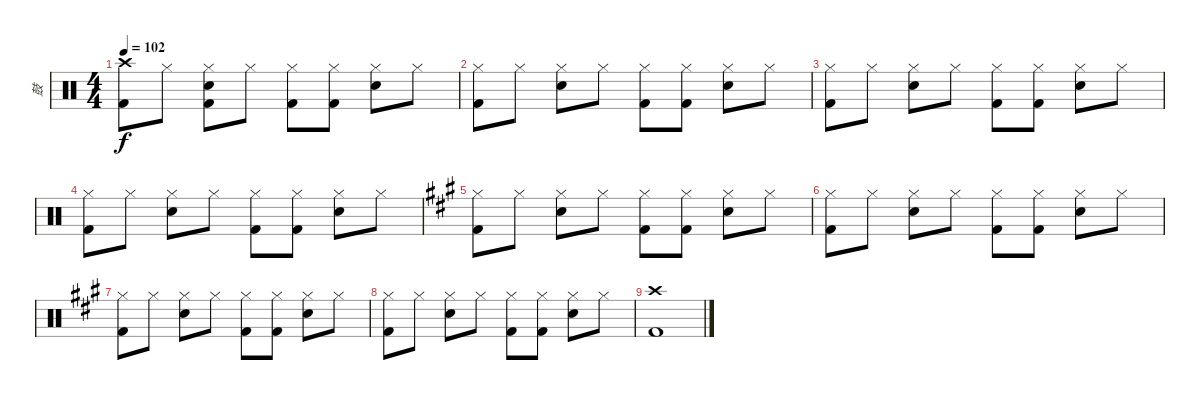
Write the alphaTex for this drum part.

\track ("鼓" "鼓") {instrument percussion}
\staff {score}
\articulation defaults
\ts (4 4)
\tempo 102
\clef neutral
\ks c
("Crash high (hit)" "Kick (hit) 2").8{dy f} "Hi-Hat (closed)".8 ("Hi-Hat (closed)" "Electric Snare (hit)" "Kick (hit) 2").8 "Hi-Hat (closed)".8 ("Hi-Hat (closed)" "Kick (hit) 2").8 ("Hi-Hat (closed)" "Kick (hit) 2").8 ("Hi-Hat (closed)" "Electric Snare (hit)").8 "Hi-Hat (closed)".8 |
("Hi-Hat (closed)" "Kick (hit) 2").8 "Hi-Hat (closed)".8 ("Hi-Hat (closed)" "Electric Snare (hit)").8 "Hi-Hat (closed)".8 ("Hi-Hat (closed)" "Kick (hit) 2").8 ("Hi-Hat (closed)" "Kick (hit) 2").8 ("Hi-Hat (closed)" "Electric Snare (hit)").8 "Hi-Hat (closed)".8 |
("Hi-Hat (closed)" "Kick (hit) 2").8 "Hi-Hat (closed)".8 ("Hi-Hat (closed)" "Electric Snare (hit)").8 "Hi-Hat (closed)".8 ("Hi-Hat (closed)" "Kick (hit) 2").8 ("Hi-Hat (closed)" "Kick (hit) 2").8 ("Hi-Hat (closed)" "Electric Snare (hit)").8 "Hi-Hat (closed)".8 |
("Hi-Hat (closed)" "Kick (hit) 2").8 "Hi-Hat (closed)".8 ("Hi-Hat (closed)" "Electric Snare (hit)").8 "Hi-Hat (closed)".8 ("Hi-Hat (closed)" "Kick (hit) 2").8 ("Hi-Hat (closed)" "Kick (hit) 2").8 ("Hi-Hat (closed)" "Electric Snare (hit)").8 "Hi-Hat (closed)".8 |
\ks a
("Hi-Hat (closed)" "Kick (hit) 2").8 "Hi-Hat (closed)".8 ("Hi-Hat (closed)" "Electric Snare (hit)").8 "Hi-Hat (closed)".8 ("Hi-Hat (closed)" "Kick (hit) 2").8 ("Hi-Hat (closed)" "Kick (hit) 2").8 ("Hi-Hat (closed)" "Electric Snare (hit)").8 "Hi-Hat (closed)".8 |
("Hi-Hat (closed)" "Kick (hit) 2").8 "Hi-Hat (closed)".8 ("Hi-Hat (closed)" "Electric Snare (hit)").8 "Hi-Hat (closed)".8 ("Hi-Hat (closed)" "Kick (hit) 2").8 ("Hi-Hat (closed)" "Kick (hit) 2").8 ("Hi-Hat (closed)" "Electric Snare (hit)").8 "Hi-Hat (closed)".8 |
("Hi-Hat (closed)" "Kick (hit) 2").8 "Hi-Hat (closed)".8 ("Hi-Hat (closed)" "Electric Snare (hit)").8 "Hi-Hat (closed)".8 ("Hi-Hat (closed)" "Kick (hit) 2").8 ("Hi-Hat (closed)" "Kick (hit) 2").8 ("Hi-Hat (closed)" "Electric Snare (hit)").8 "Hi-Hat (closed)".8 |
("Hi-Hat (closed)" "Kick (hit) 2").8 "Hi-Hat (closed)".8 ("Hi-Hat (closed)" "Electric Snare (hit)").8 "Hi-Hat (closed)".8 ("Hi-Hat (closed)" "Kick (hit) 2").8 ("Hi-Hat (closed)" "Kick (hit) 2").8 ("Hi-Hat (closed)" "Electric Snare (hit)").8 "Hi-Hat (closed)".8 |
("Crash high (hit)" "Kick (hit) 2").1
